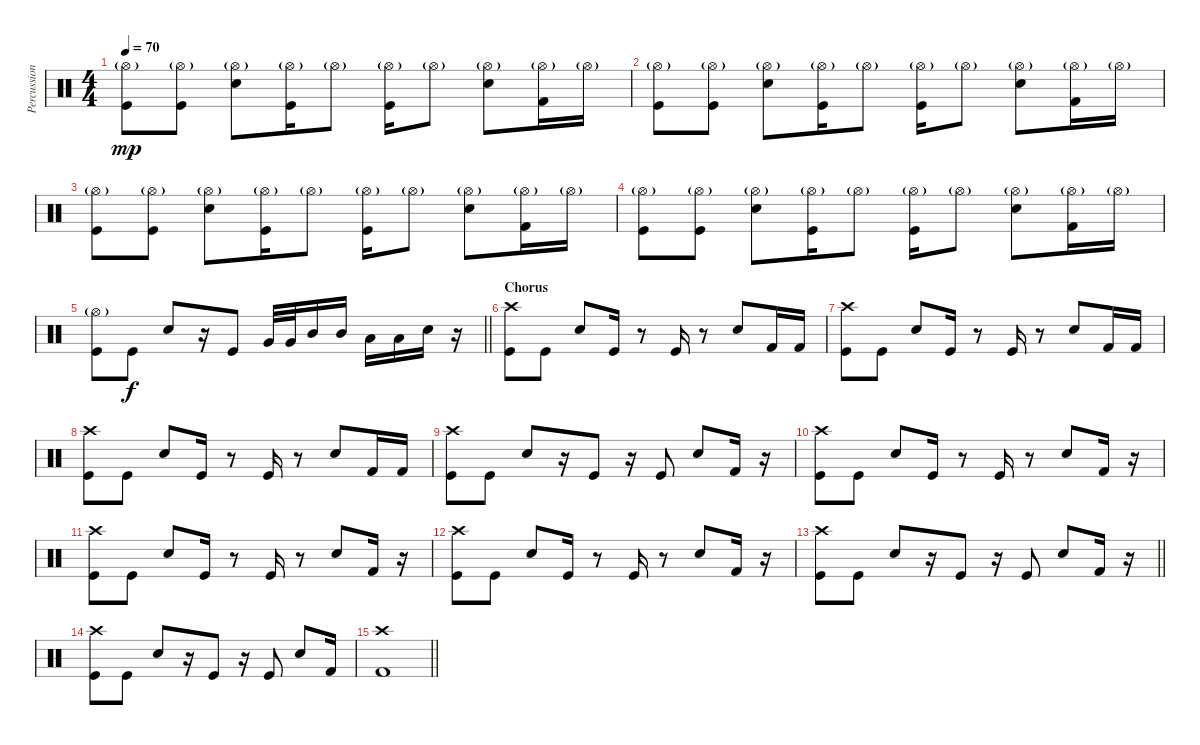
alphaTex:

\track ("Percussion" "Percussion") {instrument percussion}
\staff {score}
\articulation defaults
\ts (4 4)
\tempo 70
\clef neutral
\ks c
("Hi-Hat (open)"{g} "Kick (hit)").8{dy mp} ("Hi-Hat (open)"{g} "Kick (hit)").8 ("Hi-Hat (open)"{g} "Snare (hit) 2").8 ("Hi-Hat (open)"{g} "Kick (hit)").16 "Hi-Hat (open)"{g}.8 ("Hi-Hat (open)"{g} "Kick (hit)").16 "Hi-Hat (open)"{g}.8 ("Hi-Hat (open)"{g} "Snare (hit) 2").8 ("Hi-Hat (open)"{g} "Kick (hit) 2").16 "Hi-Hat (open)"{g}.16 |
("Hi-Hat (open)"{g} "Kick (hit)").8 ("Hi-Hat (open)"{g} "Kick (hit)").8 ("Hi-Hat (open)"{g} "Snare (hit) 2").8 ("Hi-Hat (open)"{g} "Kick (hit)").16 "Hi-Hat (open)"{g}.8 ("Hi-Hat (open)"{g} "Kick (hit)").16 "Hi-Hat (open)"{g}.8 ("Hi-Hat (open)"{g} "Snare (hit) 2").8 ("Hi-Hat (open)"{g} "Kick (hit) 2").16 "Hi-Hat (open)"{g}.16 |
("Hi-Hat (open)"{g} "Kick (hit)").8 ("Hi-Hat (open)"{g} "Kick (hit)").8 ("Hi-Hat (open)"{g} "Snare (hit) 2").8 ("Hi-Hat (open)"{g} "Kick (hit)").16 "Hi-Hat (open)"{g}.8 ("Hi-Hat (open)"{g} "Kick (hit)").16 "Hi-Hat (open)"{g}.8 ("Hi-Hat (open)"{g} "Snare (hit) 2").8 ("Hi-Hat (open)"{g} "Kick (hit) 2").16 "Hi-Hat (open)"{g}.16 |
("Hi-Hat (open)"{g} "Kick (hit)").8 ("Hi-Hat (open)"{g} "Kick (hit)").8 ("Hi-Hat (open)"{g} "Snare (hit) 2").8 ("Hi-Hat (open)"{g} "Kick (hit)").16 "Hi-Hat (open)"{g}.8 ("Hi-Hat (open)"{g} "Kick (hit)").16 "Hi-Hat (open)"{g}.8 ("Hi-Hat (open)"{g} "Snare (hit) 2").8 ("Hi-Hat (open)"{g} "Kick (hit) 2").16 "Hi-Hat (open)"{g}.16 |
\barLineRight lightlight
("Hi-Hat (open)"{g} "Kick (hit)").8 "Kick (hit)".8{dy f} "Snare (hit) 2".8 r.16 "Kick (hit)".8 "Very Low Tom (hit)".32 "Very Low Tom (hit)".32 "Mid Tom (hit)".16 "Mid Tom (hit)".16 "Low Tom (hit)".16 "Low Tom (hit)".16 "Electric Snare (hit)".16 r.16 |
\section ("" "Chorus")
("Crash high (hit)" "Kick (hit)").8 "Kick (hit)".8 "Snare (hit) 2".8 "Kick (hit)".16 r.8 "Kick (hit)".16 r.8 "Snare (hit) 2".8 "Kick (hit) 2".16 "Kick (hit) 2".16 |
("Crash high (hit)" "Kick (hit)").8 "Kick (hit)".8 "Snare (hit) 2".8 "Kick (hit)".16 r.8 "Kick (hit)".16 r.8 "Snare (hit) 2".8 "Kick (hit) 2".16 "Kick (hit) 2".16 |
("Crash high (hit)" "Kick (hit)").8 "Kick (hit)".8 "Snare (hit) 2".8 "Kick (hit)".16 r.8 "Kick (hit)".16 r.8 "Snare (hit) 2".8 "Kick (hit) 2".16 "Kick (hit) 2".16 |
("Crash high (hit)" "Kick (hit)").8 "Kick (hit)".8 "Snare (hit) 2".8 r.16 "Kick (hit)".8 r.16 "Kick (hit)".8 "Snare (hit) 2".8 "Kick (hit) 2".16 r.16 |
("Crash high (hit)" "Kick (hit)").8 "Kick (hit)".8 "Snare (hit) 2".8 "Kick (hit)".16 r.8 "Kick (hit)".16 r.8 "Snare (hit) 2".8 "Kick (hit) 2".16 r.16 |
("Crash high (hit)" "Kick (hit)").8 "Kick (hit)".8 "Snare (hit) 2".8 "Kick (hit)".16 r.8 "Kick (hit)".16 r.8 "Snare (hit) 2".8 "Kick (hit) 2".16 r.16 |
("Crash high (hit)" "Kick (hit)").8 "Kick (hit)".8 "Snare (hit) 2".8 "Kick (hit)".16 r.8 "Kick (hit)".16 r.8 "Snare (hit) 2".8 "Kick (hit) 2".16 r.16 |
\barLineRight lightlight
("Crash high (hit)" "Kick (hit)").8 "Kick (hit)".8 "Snare (hit) 2".8 r.16 "Kick (hit)".8 r.16 "Kick (hit)".8 "Snare (hit) 2".8 "Kick (hit) 2".16 r.16 |
("Crash high (hit)" "Kick (hit)").8 "Kick (hit)".8 "Snare (hit) 2".8 r.16 "Kick (hit)".8 r.16 "Kick (hit)".8 "Snare (hit) 2".8 "Kick (hit) 2".16 |
\barLineRight lightlight
("Crash high (hit)" "Kick (hit) 2").1
